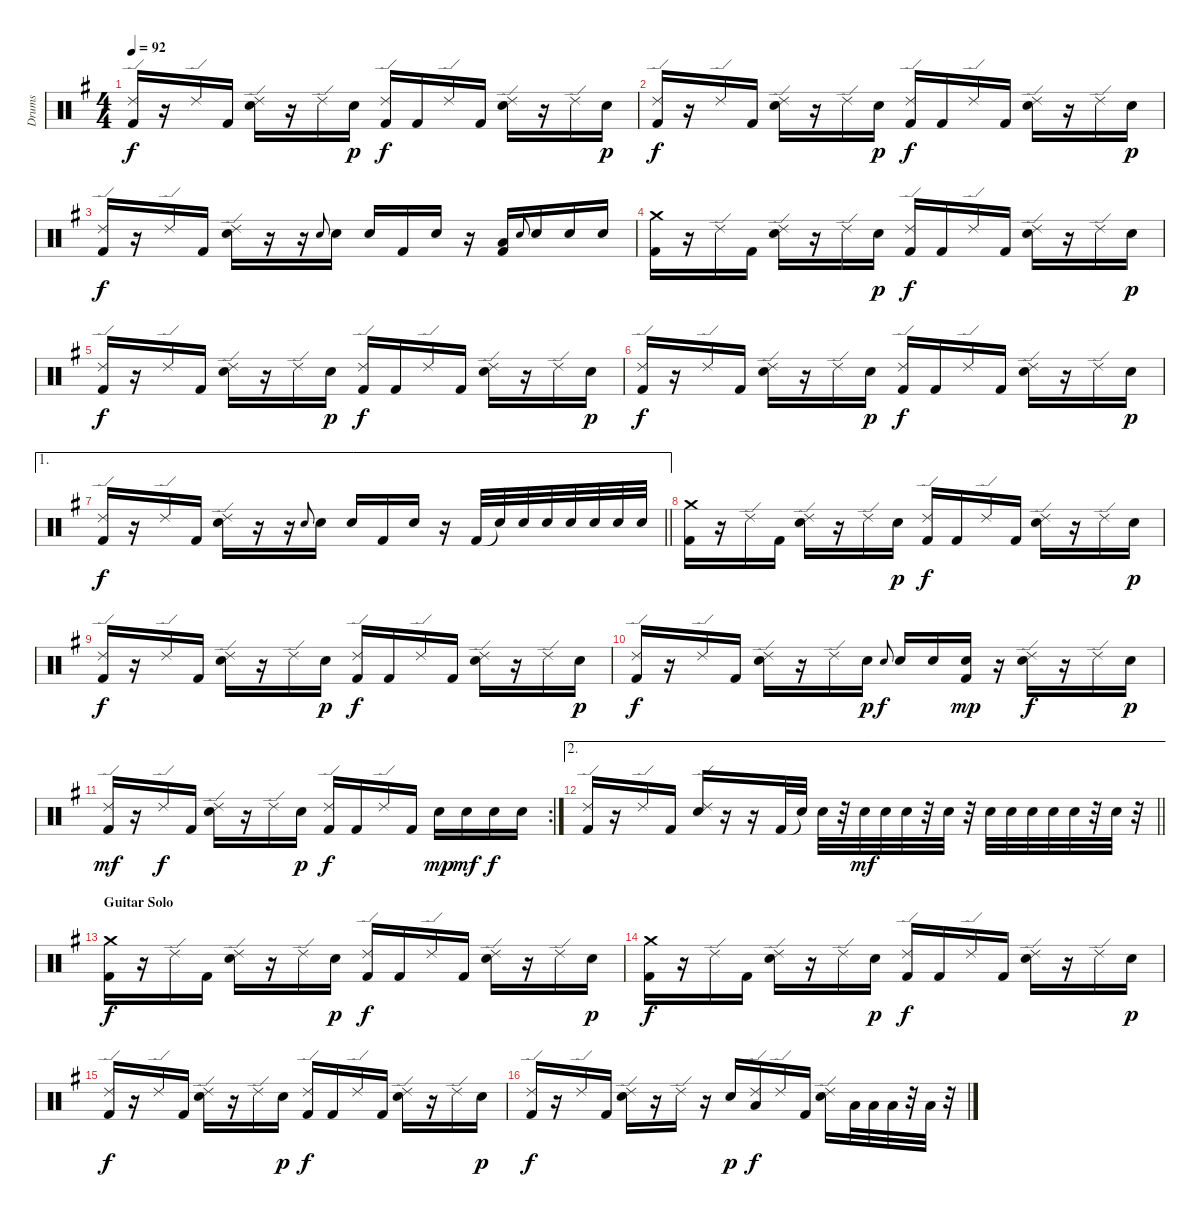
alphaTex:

\track ("Drums" "Drums") {instrument percussion}
\staff {score}
\articulation defaults
\ts (4 4)
\tempo 92
\clef neutral
\ks g
("Ride (edge) 2" "Kick (hit) 2").16{dy f} r.16 "Ride (edge) 2".16 "Kick (hit) 2".16 ("Ride (edge) 2" "Snare (hit) 2").16 r.16 "Ride (edge) 2".16 "Snare (hit) 2".16{dy p} ("Ride (edge) 2" "Kick (hit) 2").16{dy f} "Kick (hit) 2".16 "Ride (edge) 2".16 "Kick (hit) 2".16 ("Ride (edge) 2" "Snare (hit) 2").16 r.16 "Ride (edge) 2".16 "Snare (hit) 2".16{dy p} |
("Ride (edge) 2" "Kick (hit) 2").16{dy f} r.16 "Ride (edge) 2".16 "Kick (hit) 2".16 ("Ride (edge) 2" "Snare (hit) 2").16 r.16 "Ride (edge) 2".16 "Snare (hit) 2".16{dy p} ("Ride (edge) 2" "Kick (hit) 2").16{dy f} "Kick (hit) 2".16 "Ride (edge) 2".16 "Kick (hit) 2".16 ("Ride (edge) 2" "Snare (hit) 2").16 r.16 "Ride (edge) 2".16 "Snare (hit) 2".16{dy p} |
("Ride (edge) 2" "Kick (hit) 2").16{dy f} r.16 "Ride (edge) 2".16 "Kick (hit) 2".16 ("Ride (edge) 2" "Snare (hit) 2").16 r.16 r.16 "Snare (hit) 2".8{gr onbeat} "Snare (hit) 2".16 "Snare (hit) 2".16 "Kick (hit) 2".16 "Snare (hit) 2".16 r.16 ("Low Floor Tom (hit)" "Kick (hit) 2").16 "Snare (hit) 2".8{gr onbeat} "Snare (hit) 2".16 "Snare (hit) 2".16 "Snare (hit) 2".16 |
("Crash medium (hit)" "Kick (hit) 2").16 r.16 "Ride (edge) 2".16 "Kick (hit) 2".16 ("Ride (edge) 2" "Snare (hit) 2").16 r.16 "Ride (edge) 2".16 "Snare (hit) 2".16{dy p} ("Ride (edge) 2" "Kick (hit) 2").16{dy f} "Kick (hit) 2".16 "Ride (edge) 2".16 "Kick (hit) 2".16 ("Ride (edge) 2" "Snare (hit) 2").16 r.16 "Ride (edge) 2".16 "Snare (hit) 2".16{dy p} |
("Ride (edge) 2" "Kick (hit) 2").16{dy f} r.16 "Ride (edge) 2".16 "Kick (hit) 2".16 ("Ride (edge) 2" "Snare (hit) 2").16 r.16 "Ride (edge) 2".16 "Snare (hit) 2".16{dy p} ("Ride (edge) 2" "Kick (hit) 2").16{dy f} "Kick (hit) 2".16 "Ride (edge) 2".16 "Kick (hit) 2".16 ("Ride (edge) 2" "Snare (hit) 2").16 r.16 "Ride (edge) 2".16 "Snare (hit) 2".16{dy p} |
("Ride (edge) 2" "Kick (hit) 2").16{dy f} r.16 "Ride (edge) 2".16 "Kick (hit) 2".16 ("Ride (edge) 2" "Snare (hit) 2").16 r.16 "Ride (edge) 2".16 "Snare (hit) 2".16{dy p} ("Ride (edge) 2" "Kick (hit) 2").16{dy f} "Kick (hit) 2".16 "Ride (edge) 2".16 "Kick (hit) 2".16 ("Ride (edge) 2" "Snare (hit) 2").16 r.16 "Ride (edge) 2".16 "Snare (hit) 2".16{dy p} |
\ae 1
\barLineRight lightlight
("Ride (edge) 2" "Kick (hit) 2").16{dy f} r.16 "Ride (edge) 2".16 "Kick (hit) 2".16 ("Ride (edge) 2" "Snare (hit) 2").16 r.16 r.16 "Snare (hit) 2".8{gr onbeat} "Snare (hit) 2".16 "Snare (hit) 2".16 "Kick (hit) 2".16 "Snare (hit) 2".16 r.16 "Kick (hit) 2".32 "Snare (hit)"{t}.32 "Snare (hit) 2".32 "Snare (hit) 2".32 "Snare (hit) 2".32 "Snare (hit) 2".32 "Snare (hit) 2".32 "Snare (hit) 2".32 |
("Crash medium (hit)" "Kick (hit) 2").16 r.16 "Ride (edge) 2".16 "Kick (hit) 2".16 ("Ride (edge) 2" "Snare (hit) 2").16 r.16 "Ride (edge) 2".16 "Snare (hit) 2".16{dy p} ("Ride (edge) 2" "Kick (hit) 2").16{dy f} "Kick (hit) 2".16 "Ride (edge) 2".16 "Kick (hit) 2".16 ("Ride (edge) 2" "Snare (hit) 2").16 r.16 "Ride (edge) 2".16 "Snare (hit) 2".16{dy p} |
("Ride (edge) 2" "Kick (hit) 2").16{dy f} r.16 "Ride (edge) 2".16 "Kick (hit) 2".16 ("Ride (edge) 2" "Snare (hit) 2").16 r.16 "Ride (edge) 2".16 "Snare (hit) 2".16{dy p} ("Ride (edge) 2" "Kick (hit) 2").16{dy f} "Kick (hit) 2".16 "Ride (edge) 2".16 "Kick (hit) 2".16 ("Ride (edge) 2" "Snare (hit) 2").16 r.16 "Ride (edge) 2".16 "Snare (hit) 2".16{dy p} |
("Ride (edge) 2" "Kick (hit) 2").16{dy f} r.16 "Ride (edge) 2".16 "Kick (hit) 2".16 ("Ride (edge) 2" "Snare (hit) 2").16 r.16 "Ride (edge) 2".16 "Snare (hit) 2".16{dy p} "Snare (hit) 2".8{gr onbeat dy f} "Snare (hit) 2".16 "Snare (hit) 2".16 ("Snare (hit) 2" "Kick (hit) 2").16{dy mp} r.16 ("Ride (edge) 2" "Snare (hit) 2").16{dy f} r.16 "Ride (edge) 2".16 "Snare (hit) 2".16{dy p} |
\rc 2
("Ride (edge) 2" "Kick (hit) 2").16{dy mf} r.16 "Ride (edge) 2".16{dy f} "Kick (hit) 2".16 ("Ride (edge) 2" "Snare (hit) 2").16 r.16 "Ride (edge) 2".16 "Snare (hit) 2".16{dy p} ("Ride (edge) 2" "Kick (hit) 2").16{dy f} "Kick (hit) 2".16 "Ride (edge) 2".16 "Kick (hit) 2".16 "Snare (hit) 2".16{dy mp} "Snare (hit) 2".16{dy mf} "Snare (hit) 2".16{dy f} "Snare (hit) 2".16 |
\ae 2
\barLineRight lightlight
("Ride (edge) 2" "Kick (hit) 2").16 r.16 "Ride (edge) 2".16 "Kick (hit) 2".16 ("Ride (edge) 2" "Snare (hit) 2").16 r.16 r.16 "Kick (hit) 2".32 "Snare (hit)"{t}.32 "Snare (hit) 2".32 r.32 "Snare (hit) 2".32{dy mf} "Snare (hit) 2".32 "Snare (hit) 2".32 r.32 "Snare (hit) 2".32 r.32 "Snare (hit) 2".32 "Snare (hit) 2".32 "Snare (hit) 2".32 "Snare (hit) 2".32 "Snare (hit) 2".32 r.32 "Snare (hit) 2".32 r.32 |
\section ("" "Guitar Solo")
("Crash medium (hit)" "Kick (hit) 2").16{dy f} r.16 "Ride (edge) 2".16 "Kick (hit) 2".16 ("Ride (edge) 2" "Snare (hit) 2").16 r.16 "Ride (edge) 2".16 "Snare (hit) 2".16{dy p} ("Ride (edge) 2" "Kick (hit) 2").16{dy f} "Kick (hit) 2".16 "Ride (edge) 2".16 "Kick (hit) 2".16 ("Ride (edge) 2" "Snare (hit) 2").16 r.16 "Ride (edge) 2".16 "Snare (hit) 2".16{dy p} |
("Crash medium (hit)" "Kick (hit) 2").16{dy f} r.16 "Ride (edge) 2".16 "Kick (hit) 2".16 ("Ride (edge) 2" "Snare (hit) 2").16 r.16 "Ride (edge) 2".16 "Snare (hit) 2".16{dy p} ("Ride (edge) 2" "Kick (hit) 2").16{dy f} "Kick (hit) 2".16 "Ride (edge) 2".16 "Kick (hit) 2".16 ("Ride (edge) 2" "Snare (hit) 2").16 r.16 "Ride (edge) 2".16 "Snare (hit) 2".16{dy p} |
("Ride (edge) 2" "Kick (hit) 2").16{dy f} r.16 "Ride (edge) 2".16 "Kick (hit) 2".16 ("Ride (edge) 2" "Snare (hit) 2").16 r.16 "Ride (edge) 2".16 "Snare (hit) 2".16{dy p} ("Ride (edge) 2" "Kick (hit) 2").16{dy f} "Kick (hit) 2".16 "Ride (edge) 2".16 "Kick (hit) 2".16 ("Ride (edge) 2" "Snare (hit) 2").16 r.16 "Ride (edge) 2".16 "Snare (hit) 2".16{dy p} |
("Ride (edge) 2" "Kick (hit) 2").16{dy f} r.16 "Ride (edge) 2".16 "Kick (hit) 2".16 ("Ride (edge) 2" "Snare (hit) 2").16 r.16 "Ride (edge) 2".16 r.16 "Snare (hit) 2".16{dy p} ("Ride (edge) 2" "Low Tom (hit)").16{dy f} "Ride (edge) 2".16 "Kick (hit) 2".16 ("Ride (edge) 2" "Snare (hit) 2").16 "Low Floor Tom (hit)".32 "Low Floor Tom (hit)".32 "Low Floor Tom (hit)".32 r.32 "Low Floor Tom (hit)".32 r.32
